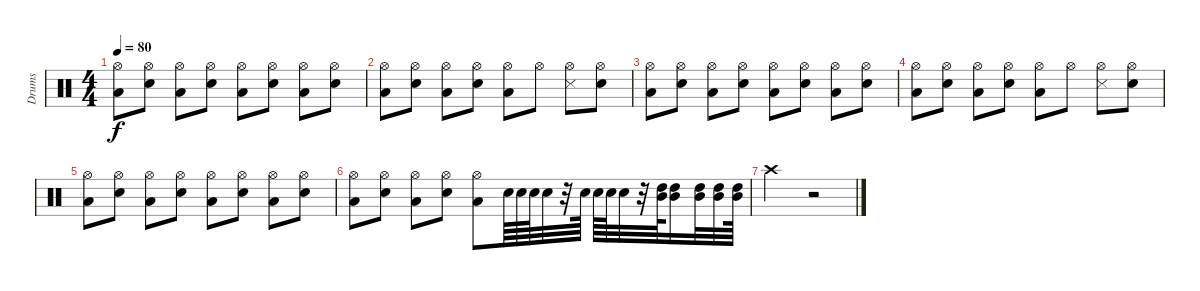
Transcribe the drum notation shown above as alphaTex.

\track ("Drums" "Drums") {instrument percussion}
\staff {score}
\articulation defaults
\ts (4 4)
\tempo 80
\clef neutral
\ks c
("Low Floor Tom (hit)" "Hi-Hat (open)").8{dy f} ("Snare (hit) 2" "Hi-Hat (open)").8 ("Low Floor Tom (hit)" "Hi-Hat (open)").8 ("Snare (hit) 2" "Hi-Hat (open)").8 ("Low Floor Tom (hit)" "Hi-Hat (open)").8 ("Snare (hit) 2" "Hi-Hat (open)").8 ("Low Floor Tom (hit)" "Hi-Hat (open)").8 ("Snare (hit) 2" "Hi-Hat (open)").8 |
("Low Floor Tom (hit)" "Hi-Hat (open)").8 ("Snare (hit) 2" "Hi-Hat (open)").8 ("Low Floor Tom (hit)" "Hi-Hat (open)").8 ("Snare (hit) 2" "Hi-Hat (open)").8 ("Low Floor Tom (hit)" "Hi-Hat (open)").8 "Hi-Hat (open)".8 ("Snare (side stick) 3" "Hi-Hat (open)").8 ("Snare (hit) 2" "Hi-Hat (open)").8 |
("Low Floor Tom (hit)" "Hi-Hat (open)").8 ("Snare (hit) 2" "Hi-Hat (open)").8 ("Low Floor Tom (hit)" "Hi-Hat (open)").8 ("Snare (hit) 2" "Hi-Hat (open)").8 ("Low Floor Tom (hit)" "Hi-Hat (open)").8 ("Snare (hit) 2" "Hi-Hat (open)").8 ("Low Floor Tom (hit)" "Hi-Hat (open)").8 ("Snare (hit) 2" "Hi-Hat (open)").8 |
("Low Floor Tom (hit)" "Hi-Hat (open)").8 ("Snare (hit) 2" "Hi-Hat (open)").8 ("Low Floor Tom (hit)" "Hi-Hat (open)").8 ("Snare (hit) 2" "Hi-Hat (open)").8 ("Low Floor Tom (hit)" "Hi-Hat (open)").8 "Hi-Hat (open)".8 ("Snare (side stick) 3" "Hi-Hat (open)").8 ("Snare (hit) 2" "Hi-Hat (open)").8 |
("Low Floor Tom (hit)" "Hi-Hat (open)").8 ("Snare (hit) 2" "Hi-Hat (open)").8 ("Low Floor Tom (hit)" "Hi-Hat (open)").8 ("Snare (hit) 2" "Hi-Hat (open)").8 ("Low Floor Tom (hit)" "Hi-Hat (open)").8 ("Snare (hit) 2" "Hi-Hat (open)").8 ("Low Floor Tom (hit)" "Hi-Hat (open)").8 ("Snare (hit) 2" "Hi-Hat (open)").8 |
("Low Floor Tom (hit)" "Hi-Hat (open)").8 ("Snare (hit) 2" "Hi-Hat (open)").8 ("Low Floor Tom (hit)" "Hi-Hat (open)").8 ("Snare (hit) 2" "Hi-Hat (open)").8 ("Low Floor Tom (hit)" "Hi-Hat (open)").8 "Snare (hit) 2".64 "Snare (hit) 2".64 "Snare (hit) 2".64 "Snare (hit) 2".32 r.32 "Snare (hit) 2".64 "Snare (hit) 2".64 "Snare (hit) 2".64 "Snare (hit) 2".32 r.32 ("Mid Tom (hit)" "High Tom (hit)").64 ("High Tom (hit)" "Mid Tom (hit)").16 ("Mid Tom (hit)" "High Tom (hit)").32 ("High Tom (hit)" "Mid Tom (hit)").32 ("Mid Tom (hit)" "High Tom (hit)").64 |
"Crash high (hit)".2 r.2
